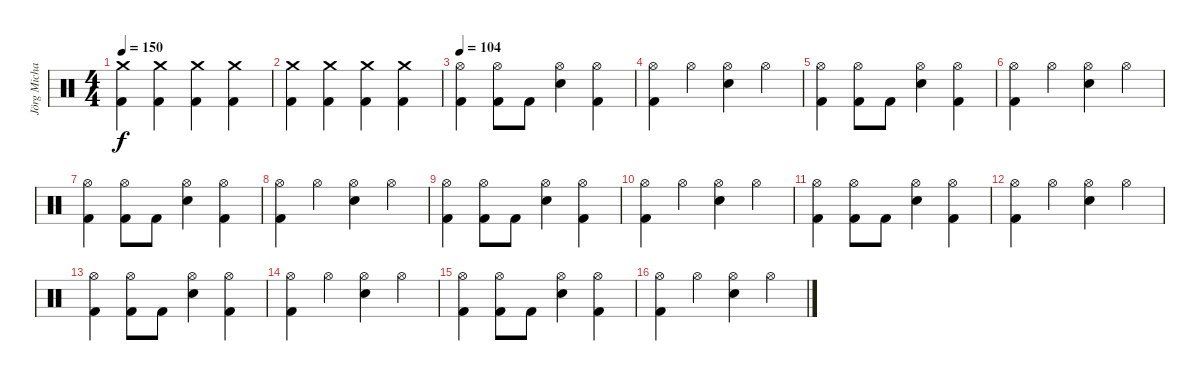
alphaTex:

\track ("Jörg Michael" "Jörg Micha") {instrument percussion}
\staff {score}
\articulation defaults
\ts (4 4)
\tempo 150
\clef neutral
\ks c
("Kick (hit) 2" "Crash medium (hit)").4{dy f} ("Kick (hit) 2" "Crash medium (hit)").4 ("Kick (hit) 2" "Crash medium (hit)").4 ("Kick (hit) 2" "Crash medium (hit)").4 |
("Kick (hit) 2" "Crash medium (hit)").4 ("Kick (hit) 2" "Crash medium (hit)").4 ("Kick (hit) 2" "Crash medium (hit)").4 ("Kick (hit) 2" "Crash medium (hit)").4 |
\tempo 104
("Kick (hit) 2" "Hi-Hat (open)").4 ("Kick (hit) 2" "Hi-Hat (open)").8 "Kick (hit) 2".8 ("Snare (hit) 2" "Hi-Hat (open)").4 ("Kick (hit) 2" "Hi-Hat (open)").4 |
("Hi-Hat (open)" "Kick (hit) 2").4 "Hi-Hat (open)".4 ("Hi-Hat (open)" "Snare (hit) 2").4 "Hi-Hat (open)".4 |
("Kick (hit) 2" "Hi-Hat (open)").4 ("Kick (hit) 2" "Hi-Hat (open)").8 "Kick (hit) 2".8 ("Snare (hit) 2" "Hi-Hat (open)").4 ("Kick (hit) 2" "Hi-Hat (open)").4 |
("Hi-Hat (open)" "Kick (hit) 2").4 "Hi-Hat (open)".4 ("Hi-Hat (open)" "Snare (hit) 2").4 "Hi-Hat (open)".4 |
("Kick (hit) 2" "Hi-Hat (open)").4 ("Kick (hit) 2" "Hi-Hat (open)").8 "Kick (hit) 2".8 ("Snare (hit) 2" "Hi-Hat (open)").4 ("Kick (hit) 2" "Hi-Hat (open)").4 |
("Hi-Hat (open)" "Kick (hit) 2").4 "Hi-Hat (open)".4 ("Hi-Hat (open)" "Snare (hit) 2").4 "Hi-Hat (open)".4 |
("Kick (hit) 2" "Hi-Hat (open)").4 ("Kick (hit) 2" "Hi-Hat (open)").8 "Kick (hit) 2".8 ("Snare (hit) 2" "Hi-Hat (open)").4 ("Kick (hit) 2" "Hi-Hat (open)").4 |
("Hi-Hat (open)" "Kick (hit) 2").4 "Hi-Hat (open)".4 ("Hi-Hat (open)" "Snare (hit) 2").4 "Hi-Hat (open)".4 |
("Kick (hit) 2" "Hi-Hat (open)").4 ("Kick (hit) 2" "Hi-Hat (open)").8 "Kick (hit) 2".8 ("Snare (hit) 2" "Hi-Hat (open)").4 ("Kick (hit) 2" "Hi-Hat (open)").4 |
("Hi-Hat (open)" "Kick (hit) 2").4 "Hi-Hat (open)".4 ("Hi-Hat (open)" "Snare (hit) 2").4 "Hi-Hat (open)".4 |
("Kick (hit) 2" "Hi-Hat (open)").4 ("Kick (hit) 2" "Hi-Hat (open)").8 "Kick (hit) 2".8 ("Snare (hit) 2" "Hi-Hat (open)").4 ("Kick (hit) 2" "Hi-Hat (open)").4 |
("Hi-Hat (open)" "Kick (hit) 2").4 "Hi-Hat (open)".4 ("Hi-Hat (open)" "Snare (hit) 2").4 "Hi-Hat (open)".4 |
("Kick (hit) 2" "Hi-Hat (open)").4 ("Kick (hit) 2" "Hi-Hat (open)").8 "Kick (hit) 2".8 ("Snare (hit) 2" "Hi-Hat (open)").4 ("Kick (hit) 2" "Hi-Hat (open)").4 |
("Hi-Hat (open)" "Kick (hit) 2").4 "Hi-Hat (open)".4 ("Hi-Hat (open)" "Snare (hit) 2").4 "Hi-Hat (open)".4
